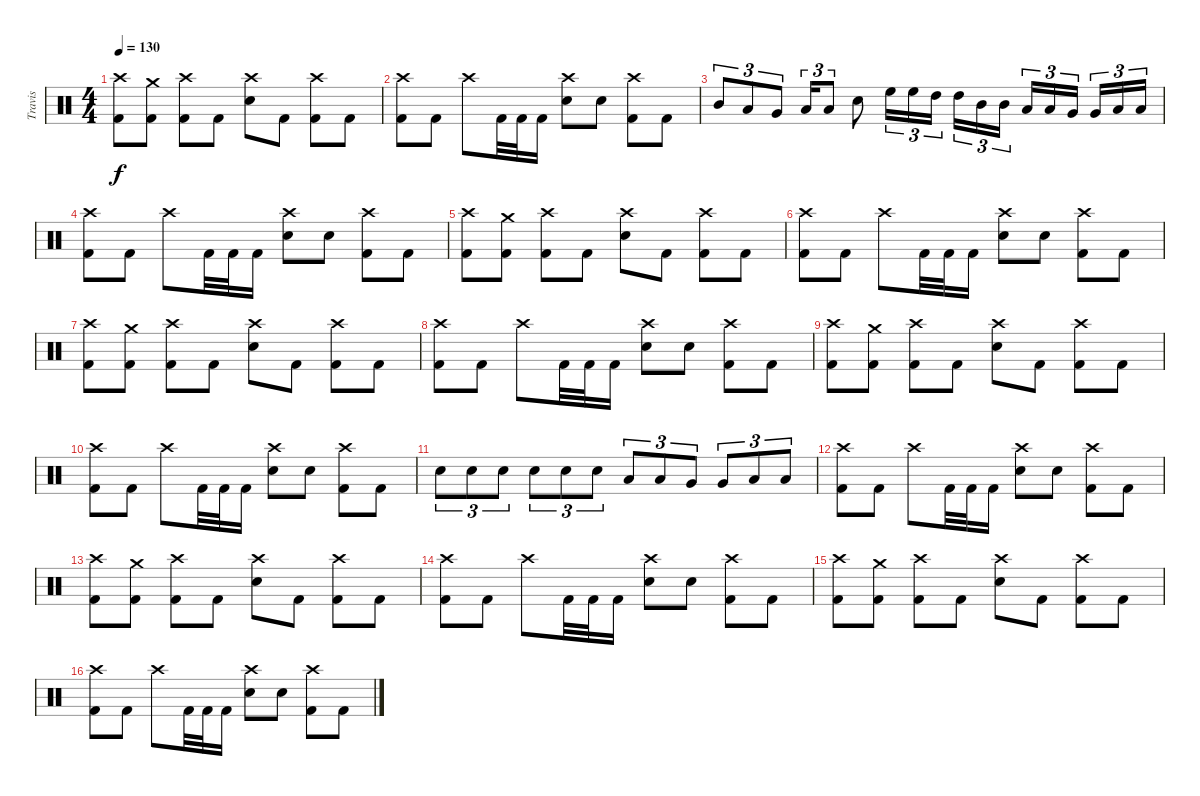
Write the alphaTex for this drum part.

\track ("Travis" "Travis") {instrument percussion}
\staff {score}
\articulation defaults
\ts (4 4)
\tempo 130
\clef neutral
\ks c
("Crash high (hit)" "Kick (hit) 2").8{dy f} ("Crash medium (hit)" "Kick (hit) 2").8 ("Crash high (hit)" "Kick (hit) 2").8 "Kick (hit) 2".8 ("Crash high (hit)" "Snare (hit) 2").8 "Kick (hit) 2".8 ("Crash high (hit)" "Kick (hit) 2").8 "Kick (hit) 2".8 |
("Crash high (hit)" "Kick (hit) 2").8 "Kick (hit) 2".8 "Crash high (hit)".8 "Kick (hit) 2".32 "Kick (hit) 2".32 "Kick (hit) 2".16 ("Crash high (hit)" "Snare (hit) 2").8 "Snare (hit) 2".8 ("Crash high (hit)" "Kick (hit) 2").8 "Kick (hit) 2".8 |
"Mid Tom (hit)".8{tu (3 2)} "Low Tom (hit)".8{tu (3 2)} "Very Low Tom (hit)".8{tu (3 2)} "Low Floor Tom (hit)".16{tu (3 2)} "Low Floor Tom (hit)".8{tu (3 2)} "Snare (hit) 2".8 "High Floor Tom (hit)".16{tu (3 2)} "High Floor Tom (hit)".16{tu (3 2)} "High Tom (hit)".16{tu (3 2) beam splitsecondary} "High Tom (hit)".16{tu (3 2)} "Mid Tom (hit)".16{tu (3 2)} "Mid Tom (hit)".16{tu (3 2)} "Low Tom (hit)".16{tu (3 2)} "Low Tom (hit)".16{tu (3 2)} "Very Low Tom (hit)".16{tu (3 2) beam splitsecondary} "Very Low Tom (hit)".16{tu (3 2)} "Low Floor Tom (hit)".16{tu (3 2)} "Low Floor Tom (hit)".16{tu (3 2)} |
("Crash high (hit)" "Kick (hit) 2").8 "Kick (hit) 2".8 "Crash high (hit)".8 "Kick (hit) 2".32 "Kick (hit) 2".32 "Kick (hit) 2".16 ("Crash high (hit)" "Snare (hit) 2").8 "Snare (hit) 2".8 ("Crash high (hit)" "Kick (hit) 2").8 "Kick (hit) 2".8 |
("Crash high (hit)" "Kick (hit) 2").8 ("Crash medium (hit)" "Kick (hit) 2").8 ("Crash high (hit)" "Kick (hit) 2").8 "Kick (hit) 2".8 ("Crash high (hit)" "Snare (hit) 2").8 "Kick (hit) 2".8 ("Crash high (hit)" "Kick (hit) 2").8 "Kick (hit) 2".8 |
("Crash high (hit)" "Kick (hit) 2").8 "Kick (hit) 2".8 "Crash high (hit)".8 "Kick (hit) 2".32 "Kick (hit) 2".32 "Kick (hit) 2".16 ("Crash high (hit)" "Snare (hit) 2").8 "Snare (hit) 2".8 ("Crash high (hit)" "Kick (hit) 2").8 "Kick (hit) 2".8 |
("Crash high (hit)" "Kick (hit) 2").8 ("Crash medium (hit)" "Kick (hit) 2").8 ("Crash high (hit)" "Kick (hit) 2").8 "Kick (hit) 2".8 ("Crash high (hit)" "Snare (hit) 2").8 "Kick (hit) 2".8 ("Crash high (hit)" "Kick (hit) 2").8 "Kick (hit) 2".8 |
("Crash high (hit)" "Kick (hit) 2").8 "Kick (hit) 2".8 "Crash high (hit)".8 "Kick (hit) 2".32 "Kick (hit) 2".32 "Kick (hit) 2".16 ("Crash high (hit)" "Snare (hit) 2").8 "Snare (hit) 2".8 ("Crash high (hit)" "Kick (hit) 2").8 "Kick (hit) 2".8 |
("Crash high (hit)" "Kick (hit) 2").8 ("Crash medium (hit)" "Kick (hit) 2").8 ("Crash high (hit)" "Kick (hit) 2").8 "Kick (hit) 2".8 ("Crash high (hit)" "Snare (hit) 2").8 "Kick (hit) 2".8 ("Crash high (hit)" "Kick (hit) 2").8 "Kick (hit) 2".8 |
("Crash high (hit)" "Kick (hit) 2").8 "Kick (hit) 2".8 "Crash high (hit)".8 "Kick (hit) 2".32 "Kick (hit) 2".32 "Kick (hit) 2".16 ("Crash high (hit)" "Snare (hit) 2").8 "Snare (hit) 2".8 ("Crash high (hit)" "Kick (hit) 2").8 "Kick (hit) 2".8 |
"Snare (hit) 2".8{tu (3 2)} "Snare (hit) 2".8{tu (3 2)} "Snare (hit) 2".8{tu (3 2)} "Snare (hit) 2".8{tu (3 2)} "Snare (hit) 2".8{tu (3 2)} "Snare (hit) 2".8{tu (3 2)} "Low Tom (hit)".8{tu (3 2)} "Low Tom (hit)".8{tu (3 2)} "Very Low Tom (hit)".8{tu (3 2)} "Very Low Tom (hit)".8{tu (3 2)} "Low Floor Tom (hit)".8{tu (3 2)} "Low Floor Tom (hit)".8{tu (3 2)} |
("Crash high (hit)" "Kick (hit) 2").8 "Kick (hit) 2".8 "Crash high (hit)".8 "Kick (hit) 2".32 "Kick (hit) 2".32 "Kick (hit) 2".16 ("Crash high (hit)" "Snare (hit) 2").8 "Snare (hit) 2".8 ("Crash high (hit)" "Kick (hit) 2").8 "Kick (hit) 2".8 |
("Crash high (hit)" "Kick (hit) 2").8 ("Crash medium (hit)" "Kick (hit) 2").8 ("Crash high (hit)" "Kick (hit) 2").8 "Kick (hit) 2".8 ("Crash high (hit)" "Snare (hit) 2").8 "Kick (hit) 2".8 ("Crash high (hit)" "Kick (hit) 2").8 "Kick (hit) 2".8 |
("Crash high (hit)" "Kick (hit) 2").8 "Kick (hit) 2".8 "Crash high (hit)".8 "Kick (hit) 2".32 "Kick (hit) 2".32 "Kick (hit) 2".16 ("Crash high (hit)" "Snare (hit) 2").8 "Snare (hit) 2".8 ("Crash high (hit)" "Kick (hit) 2").8 "Kick (hit) 2".8 |
("Crash high (hit)" "Kick (hit) 2").8 ("Crash medium (hit)" "Kick (hit) 2").8 ("Crash high (hit)" "Kick (hit) 2").8 "Kick (hit) 2".8 ("Crash high (hit)" "Snare (hit) 2").8 "Kick (hit) 2".8 ("Crash high (hit)" "Kick (hit) 2").8 "Kick (hit) 2".8 |
("Crash high (hit)" "Kick (hit) 2").8 "Kick (hit) 2".8 "Crash high (hit)".8 "Kick (hit) 2".32 "Kick (hit) 2".32 "Kick (hit) 2".16 ("Crash high (hit)" "Snare (hit) 2").8 "Snare (hit) 2".8 ("Crash high (hit)" "Kick (hit) 2").8 "Kick (hit) 2".8
